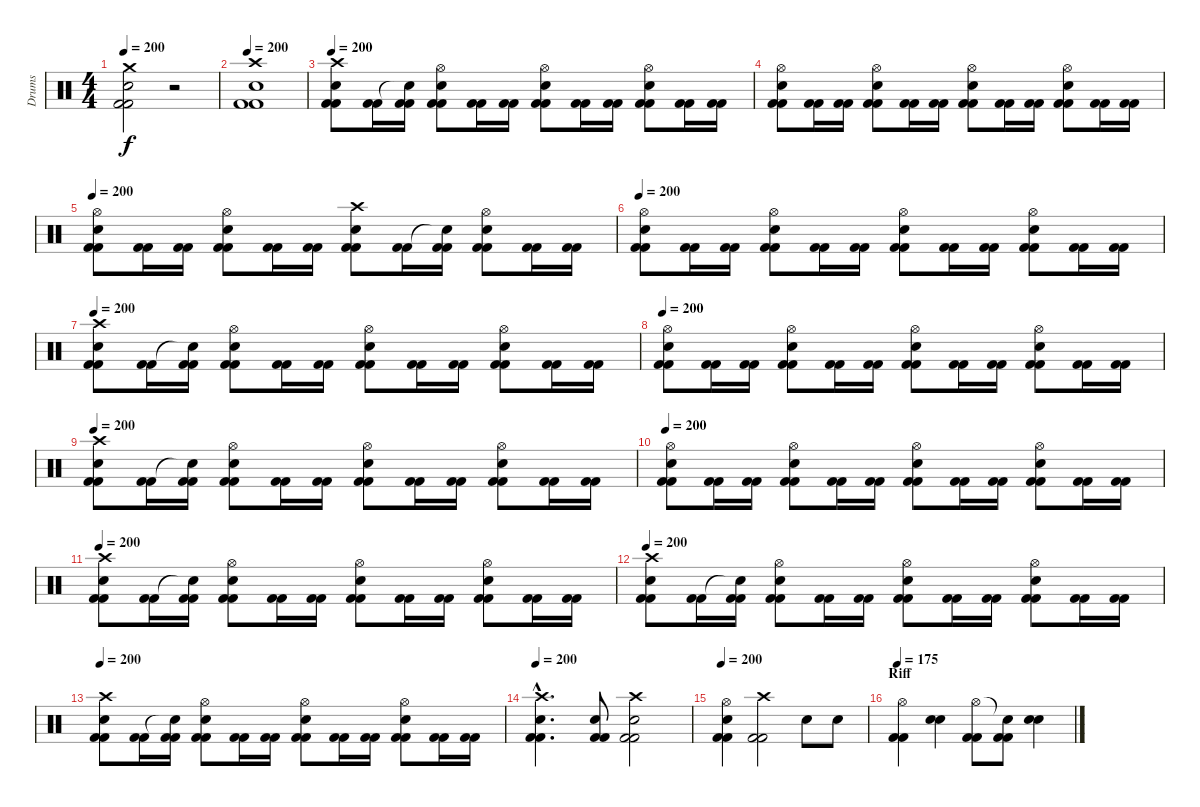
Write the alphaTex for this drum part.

\track ("Drums" "Drums") {instrument percussion}
\staff {score}
\articulation defaults
\ts (4 4)
\tempo 200
\clef neutral
\ks c
("Crash medium (hit)" "Snare (hit) 2" "Kick (hit) 2" "Kick (hit) 2").2{dy f} r.2 |
\tempo 200
("Crash high (hit)" "Snare (hit) 2" "Kick (hit) 2" "Kick (hit) 2").1 |
\tempo 200
("Crash high (hit)" "Snare (hit) 2" "Kick (hit) 2" "Kick (hit) 2").8 ("Kick (hit) 2" "Kick (hit) 2").16 ("Snare (hit)"{t} "Kick (hit) 2" "Kick (hit) 2").16 ("Hi-Hat (open)" "Snare (hit) 2" "Kick (hit) 2" "Kick (hit) 2").8 ("Kick (hit) 2" "Kick (hit) 2").16 ("Kick (hit) 2" "Kick (hit) 2").16 ("Hi-Hat (open)" "Snare (hit) 2" "Kick (hit) 2" "Kick (hit) 2").8 ("Kick (hit) 2" "Kick (hit) 2").16 ("Kick (hit) 2" "Kick (hit) 2").16 ("Hi-Hat (open)" "Snare (hit) 2" "Kick (hit) 2" "Kick (hit) 2").8 ("Kick (hit) 2" "Kick (hit) 2").16 ("Kick (hit) 2" "Kick (hit) 2").16 |
("Hi-Hat (open)" "Snare (hit) 2" "Kick (hit) 2" "Kick (hit) 2").8 ("Kick (hit) 2" "Kick (hit) 2").16 ("Kick (hit) 2" "Kick (hit) 2").16 ("Hi-Hat (open)" "Snare (hit) 2" "Kick (hit) 2" "Kick (hit) 2").8 ("Kick (hit) 2" "Kick (hit) 2").16 ("Kick (hit) 2" "Kick (hit) 2").16 ("Hi-Hat (open)" "Snare (hit) 2" "Kick (hit) 2" "Kick (hit) 2").8 ("Kick (hit) 2" "Kick (hit) 2").16 ("Kick (hit) 2" "Kick (hit) 2").16 ("Hi-Hat (open)" "Snare (hit) 2" "Kick (hit) 2" "Kick (hit) 2").8 ("Kick (hit) 2" "Kick (hit) 2").16 ("Kick (hit) 2" "Kick (hit) 2").16 |
\tempo 200
("Hi-Hat (open)" "Snare (hit) 2" "Kick (hit) 2" "Kick (hit) 2").8 ("Kick (hit) 2" "Kick (hit) 2").16 ("Kick (hit) 2" "Kick (hit) 2").16 ("Hi-Hat (open)" "Snare (hit) 2" "Kick (hit) 2" "Kick (hit) 2").8 ("Kick (hit) 2" "Kick (hit) 2").16 ("Kick (hit) 2" "Kick (hit) 2").16 ("Crash high (hit)" "Snare (hit) 2" "Kick (hit) 2" "Kick (hit) 2").8 ("Kick (hit) 2" "Kick (hit) 2").16 ("Snare (hit)"{t} "Kick (hit) 2" "Kick (hit) 2").16 ("Hi-Hat (open)" "Snare (hit) 2" "Kick (hit) 2" "Kick (hit) 2").8 ("Kick (hit) 2" "Kick (hit) 2").16 ("Kick (hit) 2" "Kick (hit) 2").16 |
\tempo 200
("Hi-Hat (open)" "Snare (hit) 2" "Kick (hit) 2" "Kick (hit) 2").8 ("Kick (hit) 2" "Kick (hit) 2").16 ("Kick (hit) 2" "Kick (hit) 2").16 ("Hi-Hat (open)" "Snare (hit) 2" "Kick (hit) 2" "Kick (hit) 2").8 ("Kick (hit) 2" "Kick (hit) 2").16 ("Kick (hit) 2" "Kick (hit) 2").16 ("Hi-Hat (open)" "Snare (hit) 2" "Kick (hit) 2" "Kick (hit) 2").8 ("Kick (hit) 2" "Kick (hit) 2").16 ("Kick (hit) 2" "Kick (hit) 2").16 ("Hi-Hat (open)" "Snare (hit) 2" "Kick (hit) 2" "Kick (hit) 2").8 ("Kick (hit) 2" "Kick (hit) 2").16 ("Kick (hit) 2" "Kick (hit) 2").16 |
\tempo 200
("Crash high (hit)" "Snare (hit) 2" "Kick (hit) 2" "Kick (hit) 2").8 ("Kick (hit) 2" "Kick (hit) 2").16 ("Snare (hit)"{t} "Kick (hit) 2" "Kick (hit) 2").16 ("Hi-Hat (open)" "Snare (hit) 2" "Kick (hit) 2" "Kick (hit) 2").8 ("Kick (hit) 2" "Kick (hit) 2").16 ("Kick (hit) 2" "Kick (hit) 2").16 ("Hi-Hat (open)" "Snare (hit) 2" "Kick (hit) 2" "Kick (hit) 2").8 ("Kick (hit) 2" "Kick (hit) 2").16 ("Kick (hit) 2" "Kick (hit) 2").16 ("Hi-Hat (open)" "Snare (hit) 2" "Kick (hit) 2" "Kick (hit) 2").8 ("Kick (hit) 2" "Kick (hit) 2").16 ("Kick (hit) 2" "Kick (hit) 2").16 |
\tempo 200
("Hi-Hat (open)" "Snare (hit) 2" "Kick (hit) 2" "Kick (hit) 2").8 ("Kick (hit) 2" "Kick (hit) 2").16 ("Kick (hit) 2" "Kick (hit) 2").16 ("Hi-Hat (open)" "Snare (hit) 2" "Kick (hit) 2" "Kick (hit) 2").8 ("Kick (hit) 2" "Kick (hit) 2").16 ("Kick (hit) 2" "Kick (hit) 2").16 ("Hi-Hat (open)" "Snare (hit) 2" "Kick (hit) 2" "Kick (hit) 2").8 ("Kick (hit) 2" "Kick (hit) 2").16 ("Kick (hit) 2" "Kick (hit) 2").16 ("Hi-Hat (open)" "Snare (hit) 2" "Kick (hit) 2" "Kick (hit) 2").8 ("Kick (hit) 2" "Kick (hit) 2").16 ("Kick (hit) 2" "Kick (hit) 2").16 |
\tempo 200
("Crash high (hit)" "Snare (hit) 2" "Kick (hit) 2" "Kick (hit) 2").8 ("Kick (hit) 2" "Kick (hit) 2").16 ("Snare (hit)"{t} "Kick (hit) 2" "Kick (hit) 2").16 ("Hi-Hat (open)" "Snare (hit) 2" "Kick (hit) 2" "Kick (hit) 2").8 ("Kick (hit) 2" "Kick (hit) 2").16 ("Kick (hit) 2" "Kick (hit) 2").16 ("Hi-Hat (open)" "Snare (hit) 2" "Kick (hit) 2" "Kick (hit) 2").8 ("Kick (hit) 2" "Kick (hit) 2").16 ("Kick (hit) 2" "Kick (hit) 2").16 ("Hi-Hat (open)" "Snare (hit) 2" "Kick (hit) 2" "Kick (hit) 2").8 ("Kick (hit) 2" "Kick (hit) 2").16 ("Kick (hit) 2" "Kick (hit) 2").16 |
\tempo 200
("Hi-Hat (open)" "Snare (hit) 2" "Kick (hit) 2" "Kick (hit) 2").8 ("Kick (hit) 2" "Kick (hit) 2").16 ("Kick (hit) 2" "Kick (hit) 2").16 ("Hi-Hat (open)" "Snare (hit) 2" "Kick (hit) 2" "Kick (hit) 2").8 ("Kick (hit) 2" "Kick (hit) 2").16 ("Kick (hit) 2" "Kick (hit) 2").16 ("Hi-Hat (open)" "Snare (hit) 2" "Kick (hit) 2" "Kick (hit) 2").8 ("Kick (hit) 2" "Kick (hit) 2").16 ("Kick (hit) 2" "Kick (hit) 2").16 ("Hi-Hat (open)" "Snare (hit) 2" "Kick (hit) 2" "Kick (hit) 2").8 ("Kick (hit) 2" "Kick (hit) 2").16 ("Kick (hit) 2" "Kick (hit) 2").16 |
\tempo 200
("Crash high (hit)" "Snare (hit) 2" "Kick (hit) 2" "Kick (hit) 2").8 ("Kick (hit) 2" "Kick (hit) 2").16 ("Snare (hit)"{t} "Kick (hit) 2" "Kick (hit) 2").16 ("Hi-Hat (open)" "Snare (hit) 2" "Kick (hit) 2" "Kick (hit) 2").8 ("Kick (hit) 2" "Kick (hit) 2").16 ("Kick (hit) 2" "Kick (hit) 2").16 ("Hi-Hat (open)" "Snare (hit) 2" "Kick (hit) 2" "Kick (hit) 2").8 ("Kick (hit) 2" "Kick (hit) 2").16 ("Kick (hit) 2" "Kick (hit) 2").16 ("Hi-Hat (open)" "Snare (hit) 2" "Kick (hit) 2" "Kick (hit) 2").8 ("Kick (hit) 2" "Kick (hit) 2").16 ("Kick (hit) 2" "Kick (hit) 2").16 |
\tempo 200
("Crash high (hit)" "Snare (hit) 2" "Kick (hit) 2" "Kick (hit) 2").8 ("Kick (hit) 2" "Kick (hit) 2").16 ("Snare (hit)"{t} "Kick (hit) 2" "Kick (hit) 2").16 ("Hi-Hat (open)" "Snare (hit) 2" "Kick (hit) 2" "Kick (hit) 2").8 ("Kick (hit) 2" "Kick (hit) 2").16 ("Kick (hit) 2" "Kick (hit) 2").16 ("Hi-Hat (open)" "Snare (hit) 2" "Kick (hit) 2" "Kick (hit) 2").8 ("Kick (hit) 2" "Kick (hit) 2").16 ("Kick (hit) 2" "Kick (hit) 2").16 ("Hi-Hat (open)" "Snare (hit) 2" "Kick (hit) 2" "Kick (hit) 2").8 ("Kick (hit) 2" "Kick (hit) 2").16 ("Kick (hit) 2" "Kick (hit) 2").16 |
\tempo 200
("Crash high (hit)" "Snare (hit) 2" "Kick (hit) 2" "Kick (hit) 2").8 ("Kick (hit) 2" "Kick (hit) 2").16 ("Snare (hit)"{t} "Kick (hit) 2" "Kick (hit) 2").16 ("Hi-Hat (open)" "Snare (hit) 2" "Kick (hit) 2" "Kick (hit) 2").8 ("Kick (hit) 2" "Kick (hit) 2").16 ("Kick (hit) 2" "Kick (hit) 2").16 ("Hi-Hat (open)" "Snare (hit) 2" "Kick (hit) 2" "Kick (hit) 2").8 ("Kick (hit) 2" "Kick (hit) 2").16 ("Kick (hit) 2" "Kick (hit) 2").16 ("Hi-Hat (open)" "Snare (hit) 2" "Kick (hit) 2" "Kick (hit) 2").8 ("Kick (hit) 2" "Kick (hit) 2").16 ("Kick (hit) 2" "Kick (hit) 2").16 |
\tempo 200
("Crash high (hit)"{hac} "Snare (hit) 2"{hac} "Kick (hit) 2"{hac} "Kick (hit) 2"{hac}).4{d} ("Electric Snare (hit)" "Kick (hit) 2" "Kick (hit) 2").8 ("Crash high (hit)" "Snare (hit) 2" "Kick (hit) 2" "Kick (hit) 2").2 |
\tempo 200
("Hi-Hat (open)" "Snare (hit) 2" "Kick (hit) 2" "Kick (hit) 2").4 ("Crash high (hit)" "Kick (hit) 2" "Kick (hit) 2").2 "Snare (hit) 2".8 "Snare (hit) 2".8 |
\section ("" "Riff")
\tempo 175
("Kick (hit) 2" "Kick (hit) 2" "Hi-Hat (open)").4 ("Snare (hit) 2" "Snare (hit) 2").4 ("Kick (hit) 2" "Kick (hit) 2" "Hi-Hat (open)").8 ("Kick (hit) 2" "Kick (hit) 2" "Snare (hit)"{t}).8 ("Snare (hit) 2" "Snare (hit) 2").4
